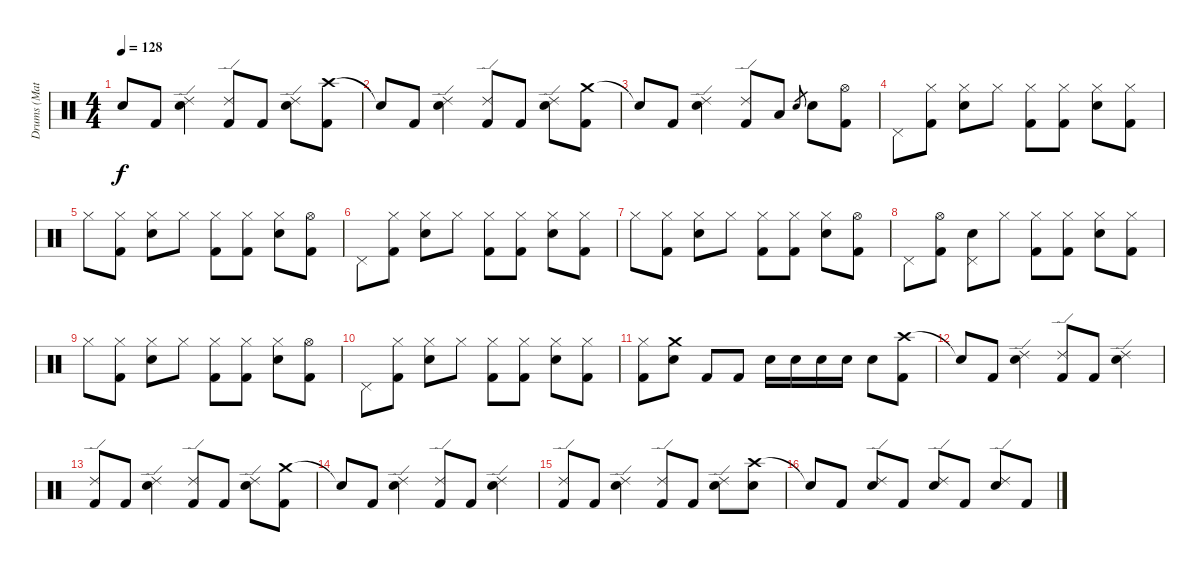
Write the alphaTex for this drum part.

\track ("Drums (Matt)" "Drums (Mat") {instrument percussion}
\staff {score}
\articulation defaults
\ts (4 4)
\tempo 128
\clef neutral
\ks c "Snare (hit)"{t}.8{dy f} "Kick (hit) 2".8
("Ride (edge) 2" "Snare (hit) 2").4 ("Ride (edge) 2" "Kick (hit) 2").8 "Kick (hit) 2".8 ("Ride (edge) 2" "Snare (hit) 2").8 ("Crash high (hit)" "Kick (hit) 2").8 |
"Snare (hit)"{t}.8 "Kick (hit) 2".8 ("Ride (edge) 2" "Snare (hit) 2").4 ("Ride (edge) 2" "Kick (hit) 2").8 "Kick (hit) 2".8 ("Ride (edge) 2" "Snare (hit) 2").8 ("Crash medium (hit)" "Kick (hit) 2").8 |
"Snare (hit)"{t}.8 "Kick (hit) 2".8 ("Ride (edge) 2" "Snare (hit) 2").4 ("Ride (edge) 2" "Kick (hit) 2").8 "Low Tom (hit)".8 "Snare (hit) 2".8{gr} "Snare (hit) 2".8 ("Hi-Hat (open)" "Kick (hit) 2").8 |
"Pedal Hi-Hat (hit)".8 ("Hi-Hat (closed)" "Kick (hit) 2").8 ("Hi-Hat (closed)" "Snare (hit) 2").8 "Hi-Hat (closed)".8 ("Hi-Hat (closed)" "Kick (hit) 2").8 ("Hi-Hat (closed)" "Kick (hit) 2").8 ("Hi-Hat (closed)" "Snare (hit) 2").8 ("Hi-Hat (closed)" "Kick (hit) 2").8 |
"Hi-Hat (closed)".8 ("Hi-Hat (closed)" "Kick (hit) 2").8 ("Hi-Hat (closed)" "Snare (hit) 2").8 "Hi-Hat (closed)".8 ("Hi-Hat (closed)" "Kick (hit) 2").8 ("Hi-Hat (closed)" "Kick (hit) 2").8 ("Hi-Hat (closed)" "Snare (hit) 2").8 ("Hi-Hat (open)" "Kick (hit) 2").8 |
"Pedal Hi-Hat (hit)".8 ("Hi-Hat (closed)" "Kick (hit) 2").8 ("Hi-Hat (closed)" "Snare (hit) 2").8 "Hi-Hat (closed)".8 ("Hi-Hat (closed)" "Kick (hit) 2").8 ("Hi-Hat (closed)" "Kick (hit) 2").8 ("Hi-Hat (closed)" "Snare (hit) 2").8 ("Hi-Hat (closed)" "Kick (hit) 2").8 |
"Hi-Hat (closed)".8 ("Hi-Hat (closed)" "Kick (hit) 2").8 ("Hi-Hat (closed)" "Snare (hit) 2").8 "Hi-Hat (closed)".8 ("Hi-Hat (closed)" "Kick (hit) 2").8 ("Hi-Hat (closed)" "Kick (hit) 2").8 ("Hi-Hat (closed)" "Snare (hit) 2").8 ("Hi-Hat (open)" "Kick (hit) 2").8 |
"Pedal Hi-Hat (hit)".8 ("Hi-Hat (open)" "Kick (hit) 2").8 ("Pedal Hi-Hat (hit)" "Snare (hit) 2").8 "Hi-Hat (closed)".8 ("Hi-Hat (closed)" "Kick (hit) 2").8 ("Hi-Hat (closed)" "Kick (hit) 2").8 ("Hi-Hat (closed)" "Snare (hit) 2").8 ("Hi-Hat (closed)" "Kick (hit) 2").8 |
"Hi-Hat (closed)".8 ("Hi-Hat (closed)" "Kick (hit) 2").8 ("Hi-Hat (closed)" "Snare (hit) 2").8 "Hi-Hat (closed)".8 ("Hi-Hat (closed)" "Kick (hit) 2").8 ("Hi-Hat (closed)" "Kick (hit) 2").8 ("Hi-Hat (closed)" "Snare (hit) 2").8 ("Hi-Hat (open)" "Kick (hit) 2").8 |
"Pedal Hi-Hat (hit)".8 ("Hi-Hat (closed)" "Kick (hit) 2").8 ("Hi-Hat (closed)" "Snare (hit) 2").8 "Hi-Hat (closed)".8 ("Hi-Hat (closed)" "Kick (hit) 2").8 ("Hi-Hat (closed)" "Kick (hit) 2").8 ("Hi-Hat (closed)" "Snare (hit) 2").8 ("Hi-Hat (closed)" "Kick (hit) 2").8 |
("Hi-Hat (closed)" "Kick (hit) 2").8 ("Crash medium (hit)" "Snare (hit) 2").8 "Kick (hit) 2".8 "Kick (hit) 2".8 "Snare (hit) 2".16 "Snare (hit) 2".16 "Snare (hit) 2".16 "Snare (hit) 2".16 "Snare (hit) 2".8 ("Crash high (hit)" "Kick (hit) 2").8 |
"Snare (hit)"{t}.8 "Kick (hit) 2".8 ("Ride (edge) 2" "Snare (hit) 2").4 ("Ride (edge) 2" "Kick (hit) 2").8 "Kick (hit) 2".8 ("Ride (edge) 2" "Snare (hit) 2").4 |
("Ride (edge) 2" "Kick (hit) 2").8 "Kick (hit) 2".8 ("Ride (edge) 2" "Snare (hit) 2").4 ("Ride (edge) 2" "Kick (hit) 2").8 "Kick (hit) 2".8 ("Ride (edge) 2" "Snare (hit) 2").8 ("Crash medium (hit)" "Kick (hit) 2").8 |
"Snare (hit)"{t}.8 "Kick (hit) 2".8 ("Ride (edge) 2" "Snare (hit) 2").4 ("Ride (edge) 2" "Kick (hit) 2").8 "Kick (hit) 2".8 ("Ride (edge) 2" "Snare (hit) 2").4 |
("Ride (edge) 2" "Kick (hit) 2").8 "Kick (hit) 2".8 ("Ride (edge) 2" "Snare (hit) 2").4 ("Ride (edge) 2" "Kick (hit) 2").8 "Kick (hit) 2".8 ("Ride (edge) 2" "Snare (hit) 2").8 ("Crash high (hit)" "Snare (hit) 2").8 |
"Snare (hit)"{t}.8 "Kick (hit) 2".8 ("Ride (edge) 2" "Snare (hit) 2").8 "Kick (hit) 2".8 ("Ride (edge) 2" "Snare (hit) 2").8 "Kick (hit) 2".8 ("Ride (edge) 2" "Snare (hit) 2").8 "Kick (hit) 2".8
